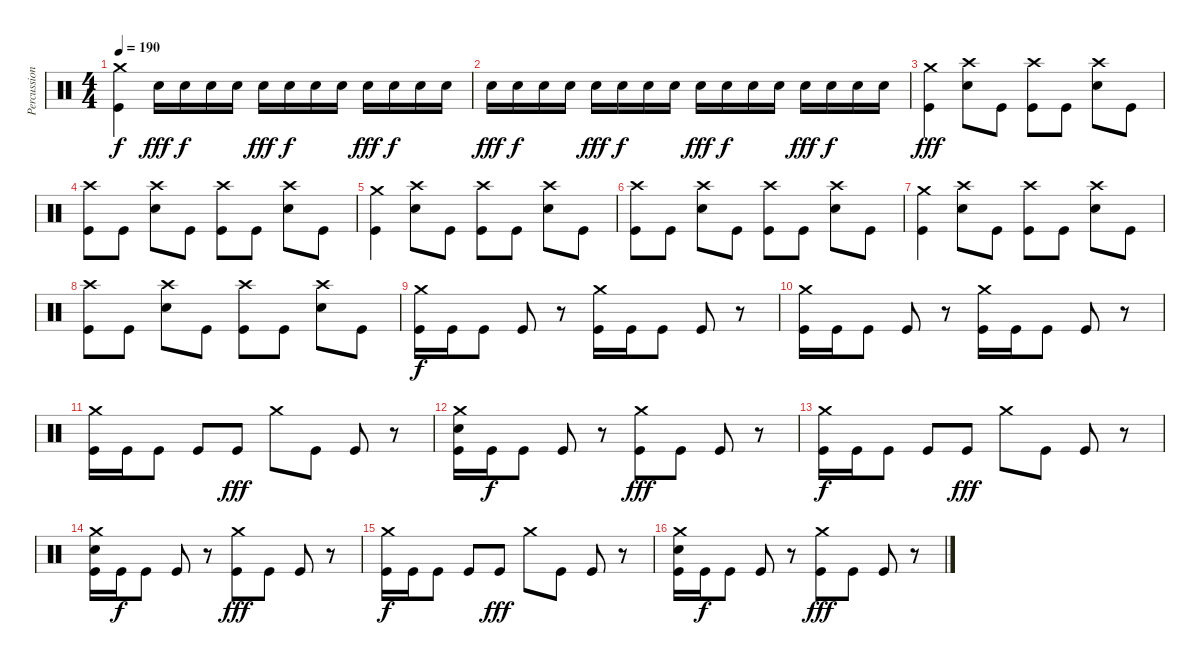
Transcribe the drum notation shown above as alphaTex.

\track ("Percussion" "Percussion") {instrument percussion}
\staff {score}
\articulation defaults
\ts (4 4)
\tempo 190
\clef neutral
\ks c
("Crash medium (hit)" "Kick (hit)").4{dy f} "Electric Snare (hit)".16{dy fff} "Electric Snare (hit)".16{dy f} "Electric Snare (hit)".16 "Electric Snare (hit)".16 "Electric Snare (hit)".16{dy fff} "Electric Snare (hit)".16{dy f} "Electric Snare (hit)".16 "Electric Snare (hit)".16 "Electric Snare (hit)".16{dy fff} "Electric Snare (hit)".16{dy f} "Electric Snare (hit)".16 "Electric Snare (hit)".16 |
"Electric Snare (hit)".16{dy fff} "Electric Snare (hit)".16{dy f} "Electric Snare (hit)".16 "Electric Snare (hit)".16 "Electric Snare (hit)".16{dy fff} "Electric Snare (hit)".16{dy f} "Electric Snare (hit)".16 "Electric Snare (hit)".16 "Electric Snare (hit)".16{dy fff} "Electric Snare (hit)".16{dy f} "Electric Snare (hit)".16 "Electric Snare (hit)".16 "Electric Snare (hit)".16{dy fff} "Electric Snare (hit)".16{dy f} "Electric Snare (hit)".16 "Electric Snare (hit)".16 |
("Crash medium (hit)" "Kick (hit)").4{dy fff} ("Crash high (hit)" "Electric Snare (hit)").8 "Kick (hit)".8 ("Crash high (hit)" "Kick (hit)").8 "Kick (hit)".8 ("Crash high (hit)" "Electric Snare (hit)").8 "Kick (hit)".8 |
("Crash high (hit)" "Kick (hit)").8 "Kick (hit)".8 ("Crash high (hit)" "Electric Snare (hit)").8 "Kick (hit)".8 ("Crash high (hit)" "Kick (hit)").8 "Kick (hit)".8 ("Crash high (hit)" "Electric Snare (hit)").8 "Kick (hit)".8 |
("Crash medium (hit)" "Kick (hit)").4 ("Crash high (hit)" "Electric Snare (hit)").8 "Kick (hit)".8 ("Crash high (hit)" "Kick (hit)").8 "Kick (hit)".8 ("Crash high (hit)" "Electric Snare (hit)").8 "Kick (hit)".8 |
("Crash high (hit)" "Kick (hit)").8 "Kick (hit)".8 ("Crash high (hit)" "Electric Snare (hit)").8 "Kick (hit)".8 ("Crash high (hit)" "Kick (hit)").8 "Kick (hit)".8 ("Crash high (hit)" "Electric Snare (hit)").8 "Kick (hit)".8 |
("Crash medium (hit)" "Kick (hit)").4 ("Crash high (hit)" "Electric Snare (hit)").8 "Kick (hit)".8 ("Crash high (hit)" "Kick (hit)").8 "Kick (hit)".8 ("Crash high (hit)" "Electric Snare (hit)").8 "Kick (hit)".8 |
("Crash high (hit)" "Kick (hit)").8 "Kick (hit)".8 ("Crash high (hit)" "Electric Snare (hit)").8 "Kick (hit)".8 ("Crash high (hit)" "Kick (hit)").8 "Kick (hit)".8 ("Crash high (hit)" "Electric Snare (hit)").8 "Kick (hit)".8 |
("Crash medium (hit)" "Kick (hit)").16{dy f} "Kick (hit)".16 "Kick (hit)".8 "Kick (hit)".8 r.8 ("Crash medium (hit)" "Kick (hit)").16 "Kick (hit)".16 "Kick (hit)".8 "Kick (hit)".8 r.8 |
("Crash medium (hit)" "Kick (hit)").16 "Kick (hit)".16 "Kick (hit)".8 "Kick (hit)".8 r.8 ("Crash medium (hit)" "Kick (hit)").16 "Kick (hit)".16 "Kick (hit)".8 "Kick (hit)".8 r.8 |
("Crash medium (hit)" "Kick (hit)").16 "Kick (hit)".16 "Kick (hit)".8 "Kick (hit)".8 "Kick (hit)".8{dy fff} "Crash medium (hit)".8 "Kick (hit)".8 "Kick (hit)".8 r.8 |
("Crash medium (hit)" "Electric Snare (hit)" "Kick (hit)").16 "Kick (hit)".16{dy f} "Kick (hit)".8 "Kick (hit)".8 r.8 ("Crash medium (hit)" "Kick (hit)").8{dy fff} "Kick (hit)".8 "Kick (hit)".8 r.8 |
("Crash medium (hit)" "Kick (hit)").16{dy f} "Kick (hit)".16 "Kick (hit)".8 "Kick (hit)".8 "Kick (hit)".8{dy fff} "Crash medium (hit)".8 "Kick (hit)".8 "Kick (hit)".8 r.8 |
("Crash medium (hit)" "Electric Snare (hit)" "Kick (hit)").16 "Kick (hit)".16{dy f} "Kick (hit)".8 "Kick (hit)".8 r.8 ("Crash medium (hit)" "Kick (hit)").8{dy fff} "Kick (hit)".8 "Kick (hit)".8 r.8 |
("Crash medium (hit)" "Kick (hit)").16{dy f} "Kick (hit)".16 "Kick (hit)".8 "Kick (hit)".8 "Kick (hit)".8{dy fff} "Crash medium (hit)".8 "Kick (hit)".8 "Kick (hit)".8 r.8 |
("Crash medium (hit)" "Electric Snare (hit)" "Kick (hit)").16 "Kick (hit)".16{dy f} "Kick (hit)".8 "Kick (hit)".8 r.8 ("Crash medium (hit)" "Kick (hit)").8{dy fff} "Kick (hit)".8 "Kick (hit)".8 r.8
